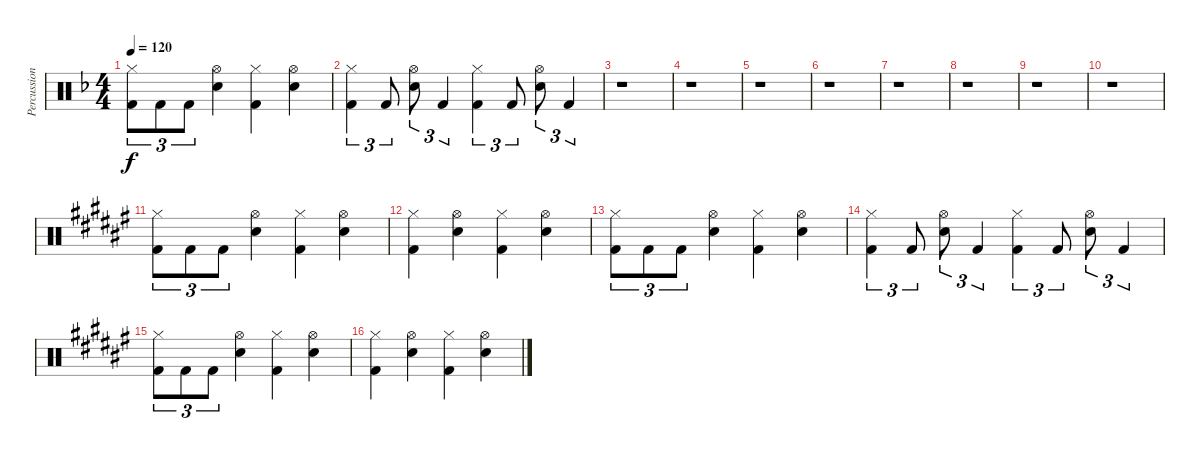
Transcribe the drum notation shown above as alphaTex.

\track ("Percussion" "Percussion") {instrument percussion}
\staff {score}
\articulation defaults
\ts (4 4)
\tempo 120
\clef neutral
\ks dminor
("Hi-Hat (closed)" "Kick (hit) 2").8{tu (3 2) dy f} "Kick (hit) 2".8{tu (3 2)} "Kick (hit) 2".8{tu (3 2)} ("Hi-Hat (open)" "Electric Snare (hit)").4 ("Hi-Hat (closed)" "Kick (hit) 2").4 ("Hi-Hat (open)" "Electric Snare (hit)").4 |
("Hi-Hat (closed)" "Kick (hit) 2").4{tu (3 2)} "Kick (hit) 2".8{tu (3 2)} ("Hi-Hat (open)" "Electric Snare (hit)").8{tu (3 2)} "Kick (hit) 2".4{tu (3 2)} ("Hi-Hat (closed)" "Kick (hit) 2").4{tu (3 2)} "Kick (hit) 2".8{tu (3 2)} ("Hi-Hat (open)" "Electric Snare (hit)").8{tu (3 2)} "Kick (hit) 2".4{tu (3 2)} |
r.1 |
r.1 |
r.1 |
r.1 |
r.1 |
r.1 |
r.1 |
r.1 |
\ks d#minor
("Hi-Hat (closed)" "Kick (hit) 2").8{tu (3 2)} "Kick (hit) 2".8{tu (3 2)} "Kick (hit) 2".8{tu (3 2)} ("Hi-Hat (open)" "Electric Snare (hit)").4 ("Hi-Hat (closed)" "Kick (hit) 2").4 ("Hi-Hat (open)" "Electric Snare (hit)").4 |
("Hi-Hat (closed)" "Kick (hit) 2").4 ("Hi-Hat (open)" "Electric Snare (hit)").4 ("Hi-Hat (closed)" "Kick (hit) 2").4 ("Hi-Hat (open)" "Electric Snare (hit)").4 |
("Hi-Hat (closed)" "Kick (hit) 2").8{tu (3 2)} "Kick (hit) 2".8{tu (3 2)} "Kick (hit) 2".8{tu (3 2)} ("Hi-Hat (open)" "Electric Snare (hit)").4 ("Hi-Hat (closed)" "Kick (hit) 2").4 ("Hi-Hat (open)" "Electric Snare (hit)").4 |
("Hi-Hat (closed)" "Kick (hit) 2").4{tu (3 2)} "Kick (hit) 2".8{tu (3 2)} ("Hi-Hat (open)" "Electric Snare (hit)").8{tu (3 2)} "Kick (hit) 2".4{tu (3 2)} ("Hi-Hat (closed)" "Kick (hit) 2").4{tu (3 2)} "Kick (hit) 2".8{tu (3 2)} ("Hi-Hat (open)" "Electric Snare (hit)").8{tu (3 2)} "Kick (hit) 2".4{tu (3 2)} |
("Hi-Hat (closed)" "Kick (hit) 2").8{tu (3 2)} "Kick (hit) 2".8{tu (3 2)} "Kick (hit) 2".8{tu (3 2)} ("Hi-Hat (open)" "Electric Snare (hit)").4 ("Hi-Hat (closed)" "Kick (hit) 2").4 ("Hi-Hat (open)" "Electric Snare (hit)").4 |
("Hi-Hat (closed)" "Kick (hit) 2").4 ("Hi-Hat (open)" "Electric Snare (hit)").4 ("Hi-Hat (closed)" "Kick (hit) 2").4 ("Hi-Hat (open)" "Electric Snare (hit)").4
